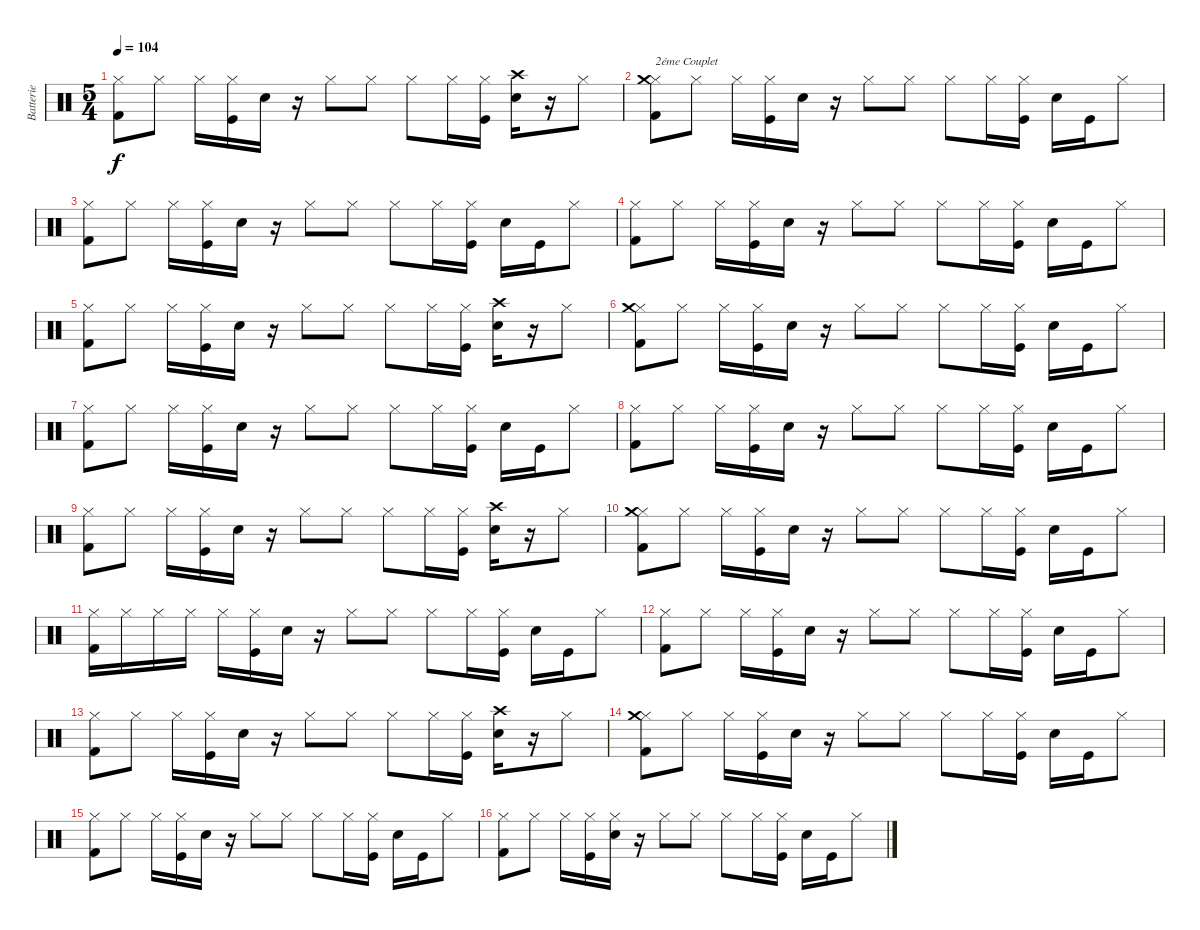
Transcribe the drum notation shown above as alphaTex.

\track ("Batterie" "Batterie") {instrument percussion}
\staff {score}
\articulation defaults
\ts (5 4)
\tempo 104
\clef neutral
\ks c
("Hi-Hat (closed)" "Kick (hit) 2").8{dy f} "Hi-Hat (closed)".8 "Hi-Hat (closed)".16 ("Hi-Hat (closed)" "Kick (hit)").16 "Electric Snare (hit)".16 r.16 "Hi-Hat (closed)".8 "Hi-Hat (closed)".8 "Hi-Hat (closed)".8 "Hi-Hat (closed)".16 ("Hi-Hat (closed)" "Kick (hit)").16 ("Crash high (hit)" "Electric Snare (hit)").16 r.16 "Hi-Hat (closed)".8 |
("Hi-Hat (closed)" "Crash medium (hit)" "Kick (hit) 2").8{txt "2éme Couplet"} "Hi-Hat (closed)".8 "Hi-Hat (closed)".16 ("Hi-Hat (closed)" "Kick (hit)").16 "Electric Snare (hit)".16 r.16 "Hi-Hat (closed)".8 "Hi-Hat (closed)".8 "Hi-Hat (closed)".8 "Hi-Hat (closed)".16 ("Hi-Hat (closed)" "Kick (hit)").16 "Electric Snare (hit)".16 "Kick (hit)".16 "Hi-Hat (closed)".8 |
("Hi-Hat (closed)" "Kick (hit) 2").8 "Hi-Hat (closed)".8 "Hi-Hat (closed)".16 ("Hi-Hat (closed)" "Kick (hit)").16 "Electric Snare (hit)".16 r.16 "Hi-Hat (closed)".8 "Hi-Hat (closed)".8 "Hi-Hat (closed)".8 "Hi-Hat (closed)".16 ("Hi-Hat (closed)" "Kick (hit)").16 "Electric Snare (hit)".16 "Kick (hit)".16 "Hi-Hat (closed)".8 |
("Hi-Hat (closed)" "Kick (hit) 2").8 "Hi-Hat (closed)".8 "Hi-Hat (closed)".16 ("Hi-Hat (closed)" "Kick (hit)").16 "Electric Snare (hit)".16 r.16 "Hi-Hat (closed)".8 "Hi-Hat (closed)".8 "Hi-Hat (closed)".8 "Hi-Hat (closed)".16 ("Hi-Hat (closed)" "Kick (hit)").16 "Electric Snare (hit)".16 "Kick (hit)".16 "Hi-Hat (closed)".8 |
("Hi-Hat (closed)" "Kick (hit) 2").8 "Hi-Hat (closed)".8 "Hi-Hat (closed)".16 ("Hi-Hat (closed)" "Kick (hit)").16 "Electric Snare (hit)".16 r.16 "Hi-Hat (closed)".8 "Hi-Hat (closed)".8 "Hi-Hat (closed)".8 "Hi-Hat (closed)".16 ("Hi-Hat (closed)" "Kick (hit)").16 ("Crash high (hit)" "Electric Snare (hit)").16 r.16 "Hi-Hat (closed)".8 |
("Hi-Hat (closed)" "Crash medium (hit)" "Kick (hit) 2").8 "Hi-Hat (closed)".8 "Hi-Hat (closed)".16 ("Hi-Hat (closed)" "Kick (hit)").16 "Electric Snare (hit)".16 r.16 "Hi-Hat (closed)".8 "Hi-Hat (closed)".8 "Hi-Hat (closed)".8 "Hi-Hat (closed)".16 ("Hi-Hat (closed)" "Kick (hit)").16 "Electric Snare (hit)".16 "Kick (hit)".16 "Hi-Hat (closed)".8 |
("Hi-Hat (closed)" "Kick (hit) 2").8 "Hi-Hat (closed)".8 "Hi-Hat (closed)".16 ("Hi-Hat (closed)" "Kick (hit)").16 "Electric Snare (hit)".16 r.16 "Hi-Hat (closed)".8 "Hi-Hat (closed)".8 "Hi-Hat (closed)".8 "Hi-Hat (closed)".16 ("Hi-Hat (closed)" "Kick (hit)").16 "Electric Snare (hit)".16 "Kick (hit)".16 "Hi-Hat (closed)".8 |
("Hi-Hat (closed)" "Kick (hit) 2").8 "Hi-Hat (closed)".8 "Hi-Hat (closed)".16 ("Hi-Hat (closed)" "Kick (hit)").16 "Electric Snare (hit)".16 r.16 "Hi-Hat (closed)".8 "Hi-Hat (closed)".8 "Hi-Hat (closed)".8 "Hi-Hat (closed)".16 ("Hi-Hat (closed)" "Kick (hit)").16 "Electric Snare (hit)".16 "Kick (hit)".16 "Hi-Hat (closed)".8 |
("Hi-Hat (closed)" "Kick (hit) 2").8 "Hi-Hat (closed)".8 "Hi-Hat (closed)".16 ("Hi-Hat (closed)" "Kick (hit)").16 "Electric Snare (hit)".16 r.16 "Hi-Hat (closed)".8 "Hi-Hat (closed)".8 "Hi-Hat (closed)".8 "Hi-Hat (closed)".16 ("Hi-Hat (closed)" "Kick (hit)").16 ("Crash high (hit)" "Electric Snare (hit)").16 r.16 "Hi-Hat (closed)".8 |
("Hi-Hat (closed)" "Crash medium (hit)" "Kick (hit) 2").8 "Hi-Hat (closed)".8 "Hi-Hat (closed)".16 ("Hi-Hat (closed)" "Kick (hit)").16 "Electric Snare (hit)".16 r.16 "Hi-Hat (closed)".8 "Hi-Hat (closed)".8 "Hi-Hat (closed)".8 "Hi-Hat (closed)".16 ("Hi-Hat (closed)" "Kick (hit)").16 "Electric Snare (hit)".16 "Kick (hit)".16 "Hi-Hat (closed)".8 |
("Hi-Hat (closed)" "Kick (hit) 2").16 "Hi-Hat (closed)".16 "Hi-Hat (closed)".16 "Hi-Hat (closed)".16 "Hi-Hat (closed)".16 ("Hi-Hat (closed)" "Kick (hit)").16 "Electric Snare (hit)".16 r.16 "Hi-Hat (closed)".8 "Hi-Hat (closed)".8 "Hi-Hat (closed)".8 "Hi-Hat (closed)".16 ("Hi-Hat (closed)" "Kick (hit)").16 "Electric Snare (hit)".16 "Kick (hit)".16 "Hi-Hat (closed)".8 |
("Hi-Hat (closed)" "Kick (hit) 2").8 "Hi-Hat (closed)".8 "Hi-Hat (closed)".16 ("Hi-Hat (closed)" "Kick (hit)").16 "Electric Snare (hit)".16 r.16 "Hi-Hat (closed)".8 "Hi-Hat (closed)".8 "Hi-Hat (closed)".8 "Hi-Hat (closed)".16 ("Hi-Hat (closed)" "Kick (hit)").16 "Electric Snare (hit)".16 "Kick (hit)".16 "Hi-Hat (closed)".8 |
("Hi-Hat (closed)" "Kick (hit) 2").8 "Hi-Hat (closed)".8 "Hi-Hat (closed)".16 ("Hi-Hat (closed)" "Kick (hit)").16 "Electric Snare (hit)".16 r.16 "Hi-Hat (closed)".8 "Hi-Hat (closed)".8 "Hi-Hat (closed)".8 "Hi-Hat (closed)".16 ("Hi-Hat (closed)" "Kick (hit)").16 ("Crash high (hit)" "Electric Snare (hit)").16 r.16 "Hi-Hat (closed)".8 |
("Hi-Hat (closed)" "Crash medium (hit)" "Kick (hit) 2").8 "Hi-Hat (closed)".8 "Hi-Hat (closed)".16 ("Hi-Hat (closed)" "Kick (hit)").16 "Electric Snare (hit)".16 r.16 "Hi-Hat (closed)".8 "Hi-Hat (closed)".8 "Hi-Hat (closed)".8 "Hi-Hat (closed)".16 ("Hi-Hat (closed)" "Kick (hit)").16 "Electric Snare (hit)".16 "Kick (hit)".16 "Hi-Hat (closed)".8 |
("Hi-Hat (closed)" "Kick (hit) 2").8 "Hi-Hat (closed)".8 "Hi-Hat (closed)".16 ("Hi-Hat (closed)" "Kick (hit)").16 "Electric Snare (hit)".16 r.16 "Hi-Hat (closed)".8 "Hi-Hat (closed)".8 "Hi-Hat (closed)".8 "Hi-Hat (closed)".16 ("Hi-Hat (closed)" "Kick (hit)").16 "Electric Snare (hit)".16 "Kick (hit)".16 "Hi-Hat (closed)".8 |
("Hi-Hat (closed)" "Kick (hit) 2").8 "Hi-Hat (closed)".8 "Hi-Hat (closed)".16 ("Hi-Hat (closed)" "Kick (hit)").16 ("Hi-Hat (closed)" "Electric Snare (hit)").16 r.16 "Hi-Hat (closed)".8 "Hi-Hat (closed)".8 "Hi-Hat (closed)".8 "Hi-Hat (closed)".16 ("Hi-Hat (closed)" "Kick (hit)").16 "Electric Snare (hit)".16 "Kick (hit)".16 "Hi-Hat (closed)".8
